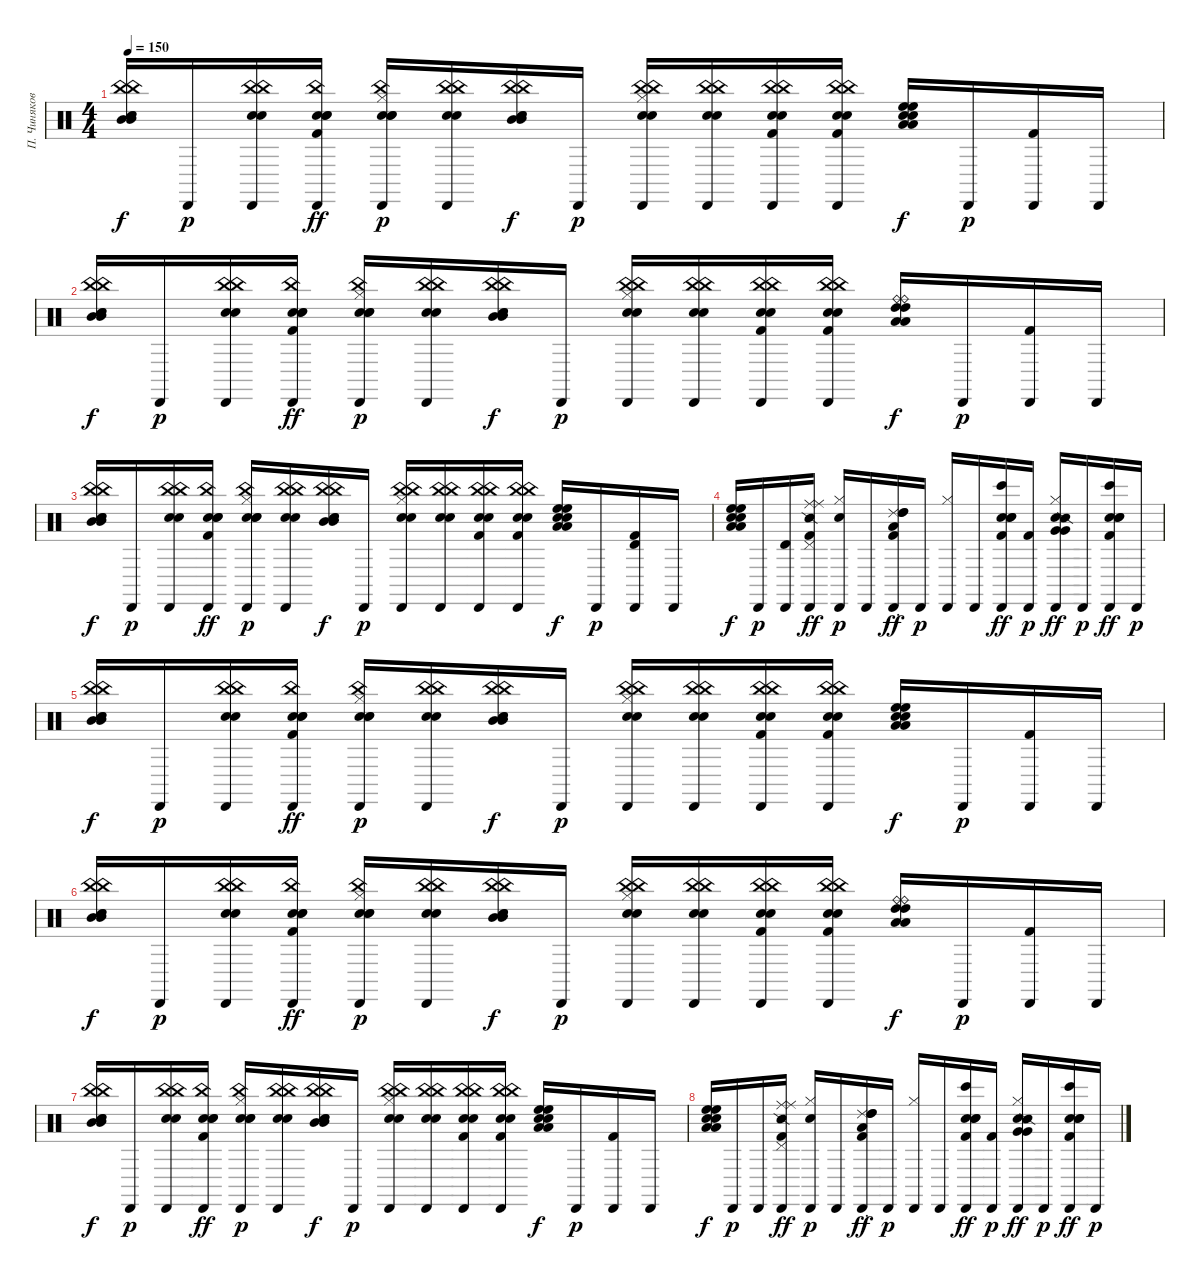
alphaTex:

\track ("П. Чиняков" "П. Чиняков") {instrument percussion}
\staff {score}
\articulation defaults
\ts (4 4)
\tempo 150
\clef neutral
\ks c
("China (hit)" "Mid Tom (hit)" "Electric Snare (hit)" "China (hit)" "Mid Tom (hit)" "Electric Snare (hit)").16{dy f} "Cabasa (hit)".16{dy p} ("Electric Snare (hit)" "Electric Snare (hit)" "Cabasa (hit)" "China (hit)" "China (hit)").16 ("Electric Snare (hit)" "Electric Snare (hit)" "Cabasa (hit)" "Kick (hit) 2" "Snare (hit) 2" "China (hit)").16{dy ff} ("Electric Snare (hit)" "Electric Snare (hit)" "Hi-Hat (closed)" "Cabasa (hit)" "Snare (hit) 2" "China (hit)").16{dy p} ("Electric Snare (hit)" "Electric Snare (hit)" "Cabasa (hit)" "China (hit)" "China (hit)").16 ("China (hit)" "Mid Tom (hit)" "Electric Snare (hit)" "China (hit)" "Mid Tom (hit)" "Electric Snare (hit)").16{dy f} "Cabasa (hit)".16{dy p} ("Electric Snare (hit)" "Electric Snare (hit)" "Hi-Hat (closed)" "Cabasa (hit)" "China (hit)" "China (hit)").16 ("Electric Snare (hit)" "Electric Snare (hit)" "Cabasa (hit)" "China (hit)" "China (hit)").16 ("Electric Snare (hit)" "Electric Snare (hit)" "Cabasa (hit)" "Kick (hit) 2" "China (hit)" "China (hit)").16 ("Electric Snare (hit)" "Electric Snare (hit)" "Cabasa (hit)" "Kick (hit) 2" "China (hit)" "China (hit)").16 ("High Floor Tom (hit)" "Low Tom (hit)" "Snare (hit) 2" "High Floor Tom (hit)" "Low Tom (hit)" "Snare (hit) 2").16{dy f} "Cabasa (hit)".16{dy p} ("Cabasa (hit)" "Kick (hit) 2").16 "Cabasa (hit)".16 |
("China (hit)" "Mid Tom (hit)" "Electric Snare (hit)" "China (hit)" "Mid Tom (hit)" "Electric Snare (hit)").16{dy f} "Cabasa (hit)".16{dy p} ("Electric Snare (hit)" "Electric Snare (hit)" "Cabasa (hit)" "China (hit)" "China (hit)").16 ("Electric Snare (hit)" "Electric Snare (hit)" "Cabasa (hit)" "Kick (hit) 2" "Snare (hit) 2" "China (hit)").16{dy ff} ("Electric Snare (hit)" "Electric Snare (hit)" "Hi-Hat (closed)" "Cabasa (hit)" "Snare (hit) 2" "China (hit)").16{dy p} ("Electric Snare (hit)" "Electric Snare (hit)" "Cabasa (hit)" "China (hit)" "China (hit)").16 ("China (hit)" "Mid Tom (hit)" "Electric Snare (hit)" "China (hit)" "Mid Tom (hit)" "Electric Snare (hit)").16{dy f} "Cabasa (hit)".16{dy p} ("Electric Snare (hit)" "Electric Snare (hit)" "Hi-Hat (closed)" "Cabasa (hit)" "China (hit)" "China (hit)").16 ("Electric Snare (hit)" "Electric Snare (hit)" "Cabasa (hit)" "China (hit)" "China (hit)").16 ("Electric Snare (hit)" "Electric Snare (hit)" "Cabasa (hit)" "Kick (hit) 2" "China (hit)" "China (hit)").16 ("Electric Snare (hit)" "Electric Snare (hit)" "Cabasa (hit)" "Kick (hit) 2" "China (hit)" "China (hit)").16 ("Ride (bell)" "High Tom (hit)" "Low Floor Tom (hit)" "Ride (bell)" "High Tom (hit)" "Low Floor Tom (hit)").16{dy f} "Cabasa (hit)".16{dy p} ("Cabasa (hit)" "Kick (hit) 2").16 "Cabasa (hit)".16 |
("China (hit)" "Mid Tom (hit)" "Electric Snare (hit)" "China (hit)" "Mid Tom (hit)" "Electric Snare (hit)").16{dy f} "Cabasa (hit)".16{dy p} ("Electric Snare (hit)" "Electric Snare (hit)" "Cabasa (hit)" "China (hit)" "China (hit)").16 ("Electric Snare (hit)" "Electric Snare (hit)" "Cabasa (hit)" "Kick (hit) 2" "Snare (hit) 2" "China (hit)").16{dy ff} ("Electric Snare (hit)" "Electric Snare (hit)" "Hi-Hat (closed)" "Cabasa (hit)" "Snare (hit) 2" "China (hit)").16{dy p} ("Electric Snare (hit)" "Electric Snare (hit)" "Cabasa (hit)" "China (hit)" "China (hit)").16 ("China (hit)" "Mid Tom (hit)" "Electric Snare (hit)" "China (hit)" "Mid Tom (hit)" "Electric Snare (hit)").16{dy f} "Cabasa (hit)".16{dy p} ("Electric Snare (hit)" "Electric Snare (hit)" "Hi-Hat (closed)" "Cabasa (hit)" "China (hit)" "China (hit)").16 ("Electric Snare (hit)" "Electric Snare (hit)" "Cabasa (hit)" "China (hit)" "China (hit)").16 ("Electric Snare (hit)" "Electric Snare (hit)" "Cabasa (hit)" "Kick (hit) 2" "China (hit)" "China (hit)").16 ("Electric Snare (hit)" "Electric Snare (hit)" "Cabasa (hit)" "Kick (hit) 2" "China (hit)" "China (hit)").16 ("High Floor Tom (hit)" "Low Tom (hit)" "Snare (hit) 2" "High Floor Tom (hit)" "Low Tom (hit)" "Snare (hit) 2").16{dy f} "Cabasa (hit)".16{dy p} ("Cabasa (hit)" "Kick (hit) 2" "Timbale high (hit)").16 "Cabasa (hit)".16 |
("High Floor Tom (hit)" "Low Tom (hit)" "Snare (hit) 2" "High Floor Tom (hit)" "Low Tom (hit)" "Snare (hit) 2").16{dy f} "Cabasa (hit)".16{dy p} ("Cabasa (hit)" "Timbale high (hit)").16 ("Cabasa (hit)" "Kick (hit) 2" "Snare (side stick) 2" "Ride (middle)" "Pedal Hi-Hat (hit)" "Ride (middle)").16{dy ff} ("Hi-Hat (closed)" "Cabasa (hit)" "Snare (hit) 2").16{dy p} "Cabasa (hit)".16 ("Cabasa (hit)" "Kick (hit) 2" "Ride (choke) 2" "High Tom (hit)" "Low Floor Tom (hit)" "High Tom (hit)").16{dy ff} "Cabasa (hit)".16{dy p} ("Hi-Hat (closed)" "Cabasa (hit)").16 "Cabasa (hit)".16 ("Electric Snare (hit)" "Electric Snare (hit)" "Cabasa (hit)" "Kick (hit) 2" "Bongo High (hit)" "Electric Snare (hit)").16{dy ff} ("Cabasa (hit)" "Kick (hit) 2").16{dy p} ("Very Low Tom (hit)" "Very Low Tom (hit)" "Hi-Hat (closed)" "Cabasa (hit)" "Snare (hit) 2" "Snare (side stick) 2").16{dy ff} "Cabasa (hit)".16{dy p} ("Electric Snare (hit)" "Electric Snare (hit)" "Cabasa (hit)" "Kick (hit) 2" "Bongo High (hit)" "Electric Snare (hit)").16{dy ff} "Cabasa (hit)".16{dy p} |
("China (hit)" "Mid Tom (hit)" "Electric Snare (hit)" "China (hit)" "Mid Tom (hit)" "Electric Snare (hit)").16{dy f} "Cabasa (hit)".16{dy p} ("Electric Snare (hit)" "Electric Snare (hit)" "Cabasa (hit)" "China (hit)" "China (hit)").16 ("Electric Snare (hit)" "Electric Snare (hit)" "Cabasa (hit)" "Kick (hit) 2" "Snare (hit) 2" "China (hit)").16{dy ff} ("Electric Snare (hit)" "Electric Snare (hit)" "Hi-Hat (closed)" "Cabasa (hit)" "Snare (hit) 2" "China (hit)").16{dy p} ("Electric Snare (hit)" "Electric Snare (hit)" "Cabasa (hit)" "China (hit)" "China (hit)").16 ("China (hit)" "Mid Tom (hit)" "Electric Snare (hit)" "China (hit)" "Mid Tom (hit)" "Electric Snare (hit)").16{dy f} "Cabasa (hit)".16{dy p} ("Electric Snare (hit)" "Electric Snare (hit)" "Hi-Hat (closed)" "Cabasa (hit)" "China (hit)" "China (hit)").16 ("Electric Snare (hit)" "Electric Snare (hit)" "Cabasa (hit)" "China (hit)" "China (hit)").16 ("Electric Snare (hit)" "Electric Snare (hit)" "Cabasa (hit)" "Kick (hit) 2" "China (hit)" "China (hit)").16 ("Electric Snare (hit)" "Electric Snare (hit)" "Cabasa (hit)" "Kick (hit) 2" "China (hit)" "China (hit)").16 ("High Floor Tom (hit)" "Low Tom (hit)" "Snare (hit) 2" "High Floor Tom (hit)" "Low Tom (hit)" "Snare (hit) 2").16{dy f} "Cabasa (hit)".16{dy p} ("Cabasa (hit)" "Kick (hit) 2").16 "Cabasa (hit)".16 |
("China (hit)" "Mid Tom (hit)" "Electric Snare (hit)" "China (hit)" "Mid Tom (hit)" "Electric Snare (hit)").16{dy f} "Cabasa (hit)".16{dy p} ("Electric Snare (hit)" "Electric Snare (hit)" "Cabasa (hit)" "China (hit)" "China (hit)").16 ("Electric Snare (hit)" "Electric Snare (hit)" "Cabasa (hit)" "Kick (hit) 2" "Snare (hit) 2" "China (hit)").16{dy ff} ("Electric Snare (hit)" "Electric Snare (hit)" "Hi-Hat (closed)" "Cabasa (hit)" "Snare (hit) 2" "China (hit)").16{dy p} ("Electric Snare (hit)" "Electric Snare (hit)" "Cabasa (hit)" "China (hit)" "China (hit)").16 ("China (hit)" "Mid Tom (hit)" "Electric Snare (hit)" "China (hit)" "Mid Tom (hit)" "Electric Snare (hit)").16{dy f} "Cabasa (hit)".16{dy p} ("Electric Snare (hit)" "Electric Snare (hit)" "Hi-Hat (closed)" "Cabasa (hit)" "China (hit)" "China (hit)").16 ("Electric Snare (hit)" "Electric Snare (hit)" "Cabasa (hit)" "China (hit)" "China (hit)").16 ("Electric Snare (hit)" "Electric Snare (hit)" "Cabasa (hit)" "Kick (hit) 2" "China (hit)" "China (hit)").16 ("Electric Snare (hit)" "Electric Snare (hit)" "Cabasa (hit)" "Kick (hit) 2" "China (hit)" "China (hit)").16 ("Ride (bell)" "High Tom (hit)" "Low Floor Tom (hit)" "Ride (bell)" "High Tom (hit)" "Low Floor Tom (hit)").16{dy f} "Cabasa (hit)".16{dy p} ("Cabasa (hit)" "Kick (hit) 2").16 "Cabasa (hit)".16 |
("China (hit)" "Mid Tom (hit)" "Electric Snare (hit)" "China (hit)" "Mid Tom (hit)" "Electric Snare (hit)").16{dy f} "Cabasa (hit)".16{dy p} ("Electric Snare (hit)" "Electric Snare (hit)" "Cabasa (hit)" "China (hit)" "China (hit)").16 ("Electric Snare (hit)" "Electric Snare (hit)" "Cabasa (hit)" "Kick (hit) 2" "Snare (hit) 2" "China (hit)").16{dy ff} ("Electric Snare (hit)" "Electric Snare (hit)" "Hi-Hat (closed)" "Cabasa (hit)" "Snare (hit) 2" "China (hit)").16{dy p} ("Electric Snare (hit)" "Electric Snare (hit)" "Cabasa (hit)" "China (hit)" "China (hit)").16 ("China (hit)" "Mid Tom (hit)" "Electric Snare (hit)" "China (hit)" "Mid Tom (hit)" "Electric Snare (hit)").16{dy f} "Cabasa (hit)".16{dy p} ("Electric Snare (hit)" "Electric Snare (hit)" "Hi-Hat (closed)" "Cabasa (hit)" "China (hit)" "China (hit)").16 ("Electric Snare (hit)" "Electric Snare (hit)" "Cabasa (hit)" "China (hit)" "China (hit)").16 ("Electric Snare (hit)" "Electric Snare (hit)" "Cabasa (hit)" "Kick (hit) 2" "China (hit)" "China (hit)").16 ("Electric Snare (hit)" "Electric Snare (hit)" "Cabasa (hit)" "Kick (hit) 2" "China (hit)" "China (hit)").16 ("High Floor Tom (hit)" "Low Tom (hit)" "Snare (hit) 2" "High Floor Tom (hit)" "Low Tom (hit)" "Snare (hit) 2").16{dy f} "Cabasa (hit)".16{dy p} ("Cabasa (hit)" "Kick (hit) 2").16 "Cabasa (hit)".16 |
("High Floor Tom (hit)" "Low Tom (hit)" "Snare (hit) 2" "High Floor Tom (hit)" "Low Tom (hit)" "Snare (hit) 2").16{dy f} "Cabasa (hit)".16{dy p} "Cabasa (hit)".16 ("Cabasa (hit)" "Kick (hit) 2" "Snare (side stick) 2" "Ride (middle)" "Pedal Hi-Hat (hit)" "Ride (middle)").16{dy ff} ("Hi-Hat (closed)" "Cabasa (hit)" "Snare (hit) 2").16{dy p} "Cabasa (hit)".16 ("Cabasa (hit)" "Kick (hit) 2" "Ride (choke) 2" "High Tom (hit)" "Low Floor Tom (hit)" "High Tom (hit)").16{dy ff} "Cabasa (hit)".16{dy p} ("Hi-Hat (closed)" "Cabasa (hit)").16 "Cabasa (hit)".16 ("Electric Snare (hit)" "Electric Snare (hit)" "Cabasa (hit)" "Kick (hit) 2" "Bongo High (hit)" "Electric Snare (hit)").16{dy ff} ("Cabasa (hit)" "Kick (hit) 2").16{dy p} ("Very Low Tom (hit)" "Very Low Tom (hit)" "Hi-Hat (closed)" "Cabasa (hit)" "Snare (hit) 2" "Snare (side stick) 2").16{dy ff} "Cabasa (hit)".16{dy p} ("Electric Snare (hit)" "Electric Snare (hit)" "Cabasa (hit)" "Kick (hit) 2" "Bongo High (hit)" "Electric Snare (hit)").16{dy ff} "Cabasa (hit)".16{dy p}
